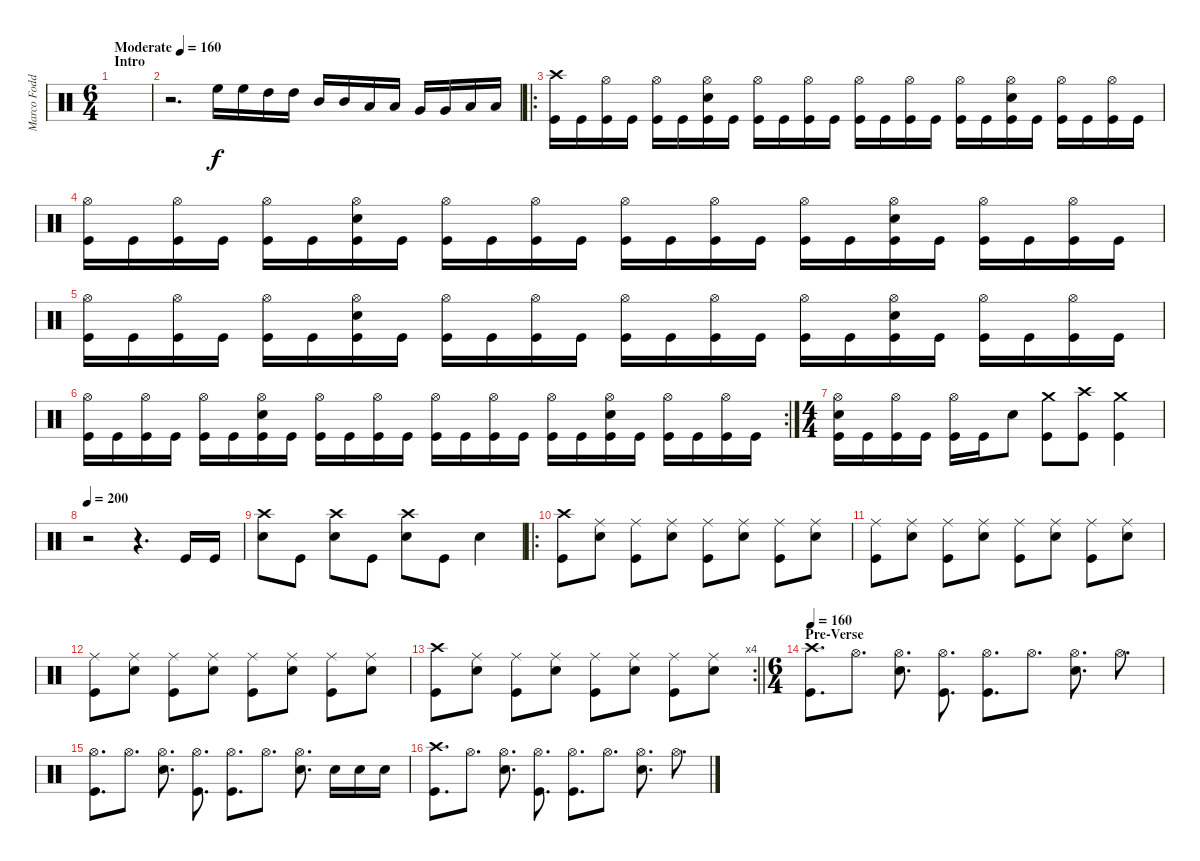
\track ("Marco Foddis" "Marco Fodd") {instrument percussion}
\staff {score}
\articulation defaults
\ts (6 4)
\section ("" "Intro")
\tempo (160 "Moderate")
\clef neutral
\ks c
|
r.2{d} "High Floor Tom (hit)".16 "High Floor Tom (hit)".16 "High Tom (hit)".16 "High Tom (hit)".16 "Mid Tom (hit)".16 "Mid Tom (hit)".16 "Low Tom (hit)".16 "Low Tom (hit)".16 "Very Low Tom (hit)".16 "Very Low Tom (hit)".16 "Low Floor Tom (hit)".16 "Low Floor Tom (hit)".16 |
\ro
("Crash high (hit)" "Kick (hit)").16 "Kick (hit)".16 ("Hi-Hat (open)" "Kick (hit)").16 "Kick (hit)".16 ("Hi-Hat (open)" "Kick (hit)").16 "Kick (hit)".16 ("Hi-Hat (open)" "Snare (hit) 2" "Kick (hit)").16 "Kick (hit)".16 ("Hi-Hat (open)" "Kick (hit)").16 "Kick (hit)".16 ("Hi-Hat (open)" "Kick (hit)").16 "Kick (hit)".16 ("Hi-Hat (open)" "Kick (hit)").16 "Kick (hit)".16 ("Hi-Hat (open)" "Kick (hit)").16 "Kick (hit)".16 ("Hi-Hat (open)" "Kick (hit)").16 "Kick (hit)".16 ("Hi-Hat (open)" "Snare (hit) 2" "Kick (hit)").16 "Kick (hit)".16 ("Hi-Hat (open)" "Kick (hit)").16 "Kick (hit)".16 ("Hi-Hat (open)" "Kick (hit)").16 "Kick (hit)".16 |
("Hi-Hat (open)" "Kick (hit)").16 "Kick (hit)".16 ("Hi-Hat (open)" "Kick (hit)").16 "Kick (hit)".16 ("Hi-Hat (open)" "Kick (hit)").16 "Kick (hit)".16 ("Hi-Hat (open)" "Snare (hit) 2" "Kick (hit)").16 "Kick (hit)".16 ("Hi-Hat (open)" "Kick (hit)").16 "Kick (hit)".16 ("Hi-Hat (open)" "Kick (hit)").16 "Kick (hit)".16 ("Hi-Hat (open)" "Kick (hit)").16 "Kick (hit)".16 ("Hi-Hat (open)" "Kick (hit)").16 "Kick (hit)".16 ("Hi-Hat (open)" "Kick (hit)").16 "Kick (hit)".16 ("Hi-Hat (open)" "Snare (hit) 2" "Kick (hit)").16 "Kick (hit)".16 ("Hi-Hat (open)" "Kick (hit)").16 "Kick (hit)".16 ("Hi-Hat (open)" "Kick (hit)").16 "Kick (hit)".16 |
("Hi-Hat (open)" "Kick (hit)").16 "Kick (hit)".16 ("Hi-Hat (open)" "Kick (hit)").16 "Kick (hit)".16 ("Hi-Hat (open)" "Kick (hit)").16 "Kick (hit)".16 ("Hi-Hat (open)" "Snare (hit) 2" "Kick (hit)").16 "Kick (hit)".16 ("Hi-Hat (open)" "Kick (hit)").16 "Kick (hit)".16 ("Hi-Hat (open)" "Kick (hit)").16 "Kick (hit)".16 ("Hi-Hat (open)" "Kick (hit)").16 "Kick (hit)".16 ("Hi-Hat (open)" "Kick (hit)").16 "Kick (hit)".16 ("Hi-Hat (open)" "Kick (hit)").16 "Kick (hit)".16 ("Hi-Hat (open)" "Snare (hit) 2" "Kick (hit)").16 "Kick (hit)".16 ("Hi-Hat (open)" "Kick (hit)").16 "Kick (hit)".16 ("Hi-Hat (open)" "Kick (hit)").16 "Kick (hit)".16 |
\rc 2
("Hi-Hat (open)" "Kick (hit)").16 "Kick (hit)".16 ("Hi-Hat (open)" "Kick (hit)").16 "Kick (hit)".16 ("Hi-Hat (open)" "Kick (hit)").16 "Kick (hit)".16 ("Hi-Hat (open)" "Snare (hit) 2" "Kick (hit)").16 "Kick (hit)".16 ("Hi-Hat (open)" "Kick (hit)").16 "Kick (hit)".16 ("Hi-Hat (open)" "Kick (hit)").16 "Kick (hit)".16 ("Hi-Hat (open)" "Kick (hit)").16 "Kick (hit)".16 ("Hi-Hat (open)" "Kick (hit)").16 "Kick (hit)".16 ("Hi-Hat (open)" "Kick (hit)").16 "Kick (hit)".16 ("Hi-Hat (open)" "Snare (hit) 2" "Kick (hit)").16 "Kick (hit)".16 ("Hi-Hat (open)" "Kick (hit)").16 "Kick (hit)".16 ("Hi-Hat (open)" "Kick (hit)").16 "Kick (hit)".16 |
\ts (4 4)
("Hi-Hat (open)" "Snare (hit) 2" "Kick (hit)").16 "Kick (hit)".16 ("Hi-Hat (open)" "Kick (hit)").16 "Kick (hit)".16 ("Hi-Hat (open)" "Kick (hit)").16 "Kick (hit)".16 "Snare (hit) 2".8 ("Crash medium (hit)" "Kick (hit)").8 ("Crash high (hit)" "Kick (hit)").8 ("Crash medium (hit)" "Kick (hit)").4 |
\tempo 200
r.2 r.4{d} "Kick (hit)".16 "Kick (hit)".16 |
("Crash high (hit)" "Snare (hit) 2").8 "Kick (hit)".8 ("Crash high (hit)" "Snare (hit) 2").8 "Kick (hit)".8 ("Crash high (hit)" "Snare (hit) 2").8 "Kick (hit)".8 "Snare (hit) 2".4 |
\ro
("Crash high (hit)" "Kick (hit)").8 ("Ride (middle)" "Snare (hit) 2").8 ("Ride (middle)" "Kick (hit)").8 ("Ride (middle)" "Snare (hit) 2").8 ("Ride (middle)" "Kick (hit)").8 ("Ride (middle)" "Snare (hit) 2").8 ("Ride (middle)" "Kick (hit)").8 ("Ride (middle)" "Snare (hit) 2").8 |
("Ride (middle)" "Kick (hit)").8 ("Ride (middle)" "Snare (hit) 2").8 ("Ride (middle)" "Kick (hit)").8 ("Ride (middle)" "Snare (hit) 2").8 ("Ride (middle)" "Kick (hit)").8 ("Ride (middle)" "Snare (hit) 2").8 ("Ride (middle)" "Kick (hit)").8 ("Ride (middle)" "Snare (hit) 2").8 |
("Ride (middle)" "Kick (hit)").8 ("Ride (middle)" "Snare (hit) 2").8 ("Ride (middle)" "Kick (hit)").8 ("Ride (middle)" "Snare (hit) 2").8 ("Ride (middle)" "Kick (hit)").8 ("Ride (middle)" "Snare (hit) 2").8 ("Ride (middle)" "Kick (hit)").8 ("Ride (middle)" "Snare (hit) 2").8 |
\rc 4
\barLineRight lightlight
("Crash high (hit)" "Kick (hit)").8 ("Ride (middle)" "Snare (hit) 2").8 ("Ride (middle)" "Kick (hit)").8 ("Ride (middle)" "Snare (hit) 2").8 ("Ride (middle)" "Kick (hit)").8 ("Ride (middle)" "Snare (hit) 2").8 ("Ride (middle)" "Kick (hit)").8 ("Ride (middle)" "Snare (hit) 2").8 |
\ts (6 4)
\section ("" "Pre-Verse")
\tempo 160
("Crash high (hit)" "Kick (hit)").8{d} "Hi-Hat (open)".8{d} ("Hi-Hat (open)" "Snare (hit) 2").8{d} ("Hi-Hat (open)" "Kick (hit)").8{d} ("Hi-Hat (open)" "Kick (hit)").8{d} "Hi-Hat (open)".8{d} ("Hi-Hat (open)" "Snare (hit) 2").8{d} "Hi-Hat (open)".8{d} |
("Hi-Hat (open)" "Kick (hit)").8{d} "Hi-Hat (open)".8{d} ("Hi-Hat (open)" "Snare (hit) 2").8{d} ("Hi-Hat (open)" "Kick (hit)").8{d} ("Hi-Hat (open)" "Kick (hit)").8{d} "Hi-Hat (open)".8{d} ("Hi-Hat (open)" "Snare (hit) 2").8{d} "Snare (hit) 2".16 "Snare (hit) 2".16 "Snare (hit) 2".16 |
("Crash high (hit)" "Kick (hit)").8{d} "Hi-Hat (open)".8{d} ("Hi-Hat (open)" "Snare (hit) 2").8{d} ("Hi-Hat (open)" "Kick (hit)").8{d} ("Hi-Hat (open)" "Kick (hit)").8{d} "Hi-Hat (open)".8{d} ("Hi-Hat (open)" "Snare (hit) 2").8{d} "Hi-Hat (open)".8{d}
